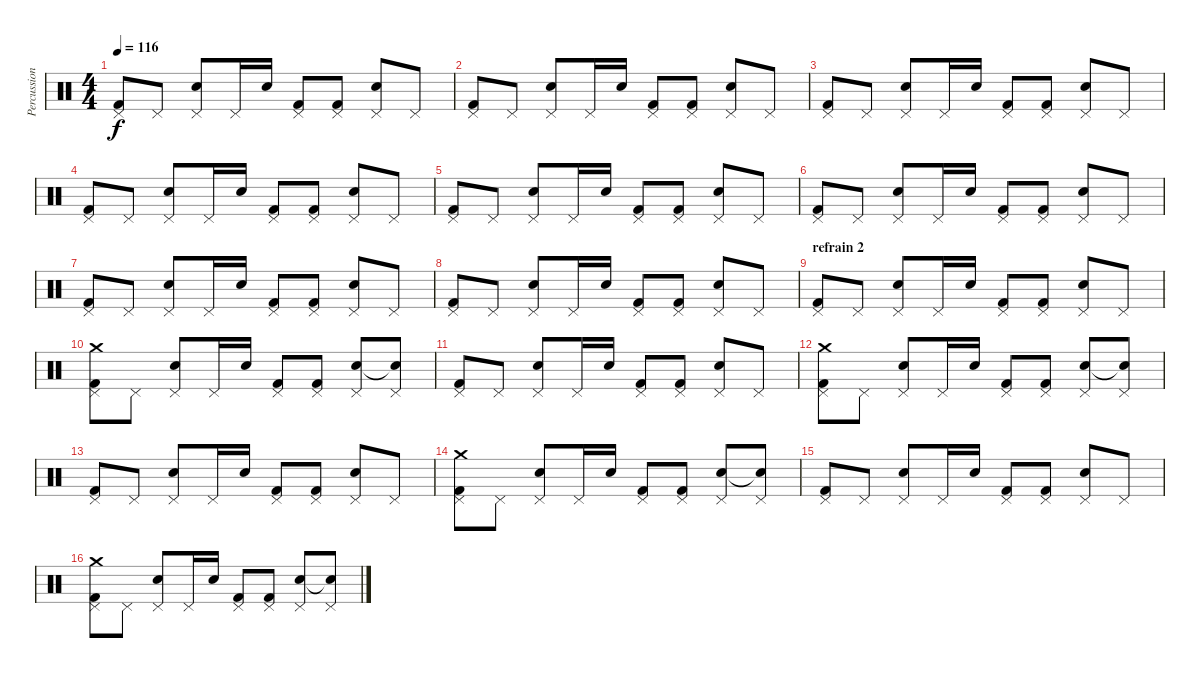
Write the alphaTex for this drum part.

\track ("Percussions" "Percussion") {instrument percussion}
\staff {score}
\articulation defaults
\ts (4 4)
\tempo 116
\clef neutral
\ks c
("Pedal Hi-Hat (hit)" "Kick (hit) 2").8{dy f} "Pedal Hi-Hat (hit)".8 ("Pedal Hi-Hat (hit)" "Electric Snare (hit)").8 "Pedal Hi-Hat (hit)".16 "Electric Snare (hit)".16 ("Pedal Hi-Hat (hit)" "Kick (hit) 2").8 ("Pedal Hi-Hat (hit)" "Kick (hit) 2").8 ("Pedal Hi-Hat (hit)" "Electric Snare (hit)").8 "Pedal Hi-Hat (hit)".8 |
("Pedal Hi-Hat (hit)" "Kick (hit) 2").8 "Pedal Hi-Hat (hit)".8 ("Pedal Hi-Hat (hit)" "Electric Snare (hit)").8 "Pedal Hi-Hat (hit)".16 "Electric Snare (hit)".16 ("Pedal Hi-Hat (hit)" "Kick (hit) 2").8 ("Pedal Hi-Hat (hit)" "Kick (hit) 2").8 ("Pedal Hi-Hat (hit)" "Electric Snare (hit)").8 "Pedal Hi-Hat (hit)".8 |
("Pedal Hi-Hat (hit)" "Kick (hit) 2").8 "Pedal Hi-Hat (hit)".8 ("Pedal Hi-Hat (hit)" "Electric Snare (hit)").8 "Pedal Hi-Hat (hit)".16 "Electric Snare (hit)".16 ("Pedal Hi-Hat (hit)" "Kick (hit) 2").8 ("Pedal Hi-Hat (hit)" "Kick (hit) 2").8 ("Pedal Hi-Hat (hit)" "Electric Snare (hit)").8 "Pedal Hi-Hat (hit)".8 |
("Pedal Hi-Hat (hit)" "Kick (hit) 2").8 "Pedal Hi-Hat (hit)".8 ("Pedal Hi-Hat (hit)" "Electric Snare (hit)").8 "Pedal Hi-Hat (hit)".16 "Electric Snare (hit)".16 ("Pedal Hi-Hat (hit)" "Kick (hit) 2").8 ("Pedal Hi-Hat (hit)" "Kick (hit) 2").8 ("Pedal Hi-Hat (hit)" "Electric Snare (hit)").8 "Pedal Hi-Hat (hit)".8 |
("Pedal Hi-Hat (hit)" "Kick (hit) 2").8 "Pedal Hi-Hat (hit)".8 ("Pedal Hi-Hat (hit)" "Electric Snare (hit)").8 "Pedal Hi-Hat (hit)".16 "Electric Snare (hit)".16 ("Pedal Hi-Hat (hit)" "Kick (hit) 2").8 ("Pedal Hi-Hat (hit)" "Kick (hit) 2").8 ("Pedal Hi-Hat (hit)" "Electric Snare (hit)").8 "Pedal Hi-Hat (hit)".8 |
("Pedal Hi-Hat (hit)" "Kick (hit) 2").8 "Pedal Hi-Hat (hit)".8 ("Pedal Hi-Hat (hit)" "Electric Snare (hit)").8 "Pedal Hi-Hat (hit)".16 "Electric Snare (hit)".16 ("Pedal Hi-Hat (hit)" "Kick (hit) 2").8 ("Pedal Hi-Hat (hit)" "Kick (hit) 2").8 ("Pedal Hi-Hat (hit)" "Electric Snare (hit)").8 "Pedal Hi-Hat (hit)".8 |
("Pedal Hi-Hat (hit)" "Kick (hit) 2").8 "Pedal Hi-Hat (hit)".8 ("Pedal Hi-Hat (hit)" "Electric Snare (hit)").8 "Pedal Hi-Hat (hit)".16 "Electric Snare (hit)".16 ("Pedal Hi-Hat (hit)" "Kick (hit) 2").8 ("Pedal Hi-Hat (hit)" "Kick (hit) 2").8 ("Pedal Hi-Hat (hit)" "Electric Snare (hit)").8 "Pedal Hi-Hat (hit)".8 |
("Pedal Hi-Hat (hit)" "Kick (hit) 2").8 "Pedal Hi-Hat (hit)".8 ("Pedal Hi-Hat (hit)" "Electric Snare (hit)").8 "Pedal Hi-Hat (hit)".16 "Electric Snare (hit)".16 ("Pedal Hi-Hat (hit)" "Kick (hit) 2").8 ("Pedal Hi-Hat (hit)" "Kick (hit) 2").8 ("Pedal Hi-Hat (hit)" "Electric Snare (hit)").8 "Pedal Hi-Hat (hit)".8 |
\section ("" "refrain 2")
("Pedal Hi-Hat (hit)" "Kick (hit) 2").8 "Pedal Hi-Hat (hit)".8 ("Pedal Hi-Hat (hit)" "Electric Snare (hit)").8 "Pedal Hi-Hat (hit)".16 "Electric Snare (hit)".16 ("Pedal Hi-Hat (hit)" "Kick (hit) 2").8 ("Pedal Hi-Hat (hit)" "Kick (hit) 2").8 ("Pedal Hi-Hat (hit)" "Electric Snare (hit)").8 "Pedal Hi-Hat (hit)".8 |
("Pedal Hi-Hat (hit)" "Crash medium (hit)" "Kick (hit) 2").8 "Pedal Hi-Hat (hit)".8 ("Pedal Hi-Hat (hit)" "Electric Snare (hit)").8 "Pedal Hi-Hat (hit)".16 "Electric Snare (hit)".16 ("Pedal Hi-Hat (hit)" "Kick (hit) 2").8 ("Pedal Hi-Hat (hit)" "Kick (hit) 2").8 ("Pedal Hi-Hat (hit)" "Electric Snare (hit)").8 ("Pedal Hi-Hat (hit)" "Snare (hit)"{t}).8 |
("Pedal Hi-Hat (hit)" "Kick (hit) 2").8 "Pedal Hi-Hat (hit)".8 ("Pedal Hi-Hat (hit)" "Electric Snare (hit)").8 "Pedal Hi-Hat (hit)".16 "Electric Snare (hit)".16 ("Pedal Hi-Hat (hit)" "Kick (hit) 2").8 ("Pedal Hi-Hat (hit)" "Kick (hit) 2").8 ("Pedal Hi-Hat (hit)" "Electric Snare (hit)").8 "Pedal Hi-Hat (hit)".8 |
("Pedal Hi-Hat (hit)" "Crash medium (hit)" "Kick (hit) 2").8 "Pedal Hi-Hat (hit)".8 ("Pedal Hi-Hat (hit)" "Electric Snare (hit)").8 "Pedal Hi-Hat (hit)".16 "Electric Snare (hit)".16 ("Pedal Hi-Hat (hit)" "Kick (hit) 2").8 ("Pedal Hi-Hat (hit)" "Kick (hit) 2").8 ("Pedal Hi-Hat (hit)" "Electric Snare (hit)").8 ("Pedal Hi-Hat (hit)" "Snare (hit)"{t}).8 |
("Pedal Hi-Hat (hit)" "Kick (hit) 2").8 "Pedal Hi-Hat (hit)".8 ("Pedal Hi-Hat (hit)" "Electric Snare (hit)").8 "Pedal Hi-Hat (hit)".16 "Electric Snare (hit)".16 ("Pedal Hi-Hat (hit)" "Kick (hit) 2").8 ("Pedal Hi-Hat (hit)" "Kick (hit) 2").8 ("Pedal Hi-Hat (hit)" "Electric Snare (hit)").8 "Pedal Hi-Hat (hit)".8 |
("Pedal Hi-Hat (hit)" "Crash medium (hit)" "Kick (hit) 2").8 "Pedal Hi-Hat (hit)".8 ("Pedal Hi-Hat (hit)" "Electric Snare (hit)").8 "Pedal Hi-Hat (hit)".16 "Electric Snare (hit)".16 ("Pedal Hi-Hat (hit)" "Kick (hit) 2").8 ("Pedal Hi-Hat (hit)" "Kick (hit) 2").8 ("Pedal Hi-Hat (hit)" "Electric Snare (hit)").8 ("Pedal Hi-Hat (hit)" "Snare (hit)"{t}).8 |
("Pedal Hi-Hat (hit)" "Kick (hit) 2").8 "Pedal Hi-Hat (hit)".8 ("Pedal Hi-Hat (hit)" "Electric Snare (hit)").8 "Pedal Hi-Hat (hit)".16 "Electric Snare (hit)".16 ("Pedal Hi-Hat (hit)" "Kick (hit) 2").8 ("Pedal Hi-Hat (hit)" "Kick (hit) 2").8 ("Pedal Hi-Hat (hit)" "Electric Snare (hit)").8 "Pedal Hi-Hat (hit)".8 |
("Pedal Hi-Hat (hit)" "Crash medium (hit)" "Kick (hit) 2").8 "Pedal Hi-Hat (hit)".8 ("Pedal Hi-Hat (hit)" "Electric Snare (hit)").8 "Pedal Hi-Hat (hit)".16 "Electric Snare (hit)".16 ("Pedal Hi-Hat (hit)" "Kick (hit) 2").8 ("Pedal Hi-Hat (hit)" "Kick (hit) 2").8 ("Pedal Hi-Hat (hit)" "Electric Snare (hit)").8 ("Pedal Hi-Hat (hit)" "Snare (hit)"{t}).8
